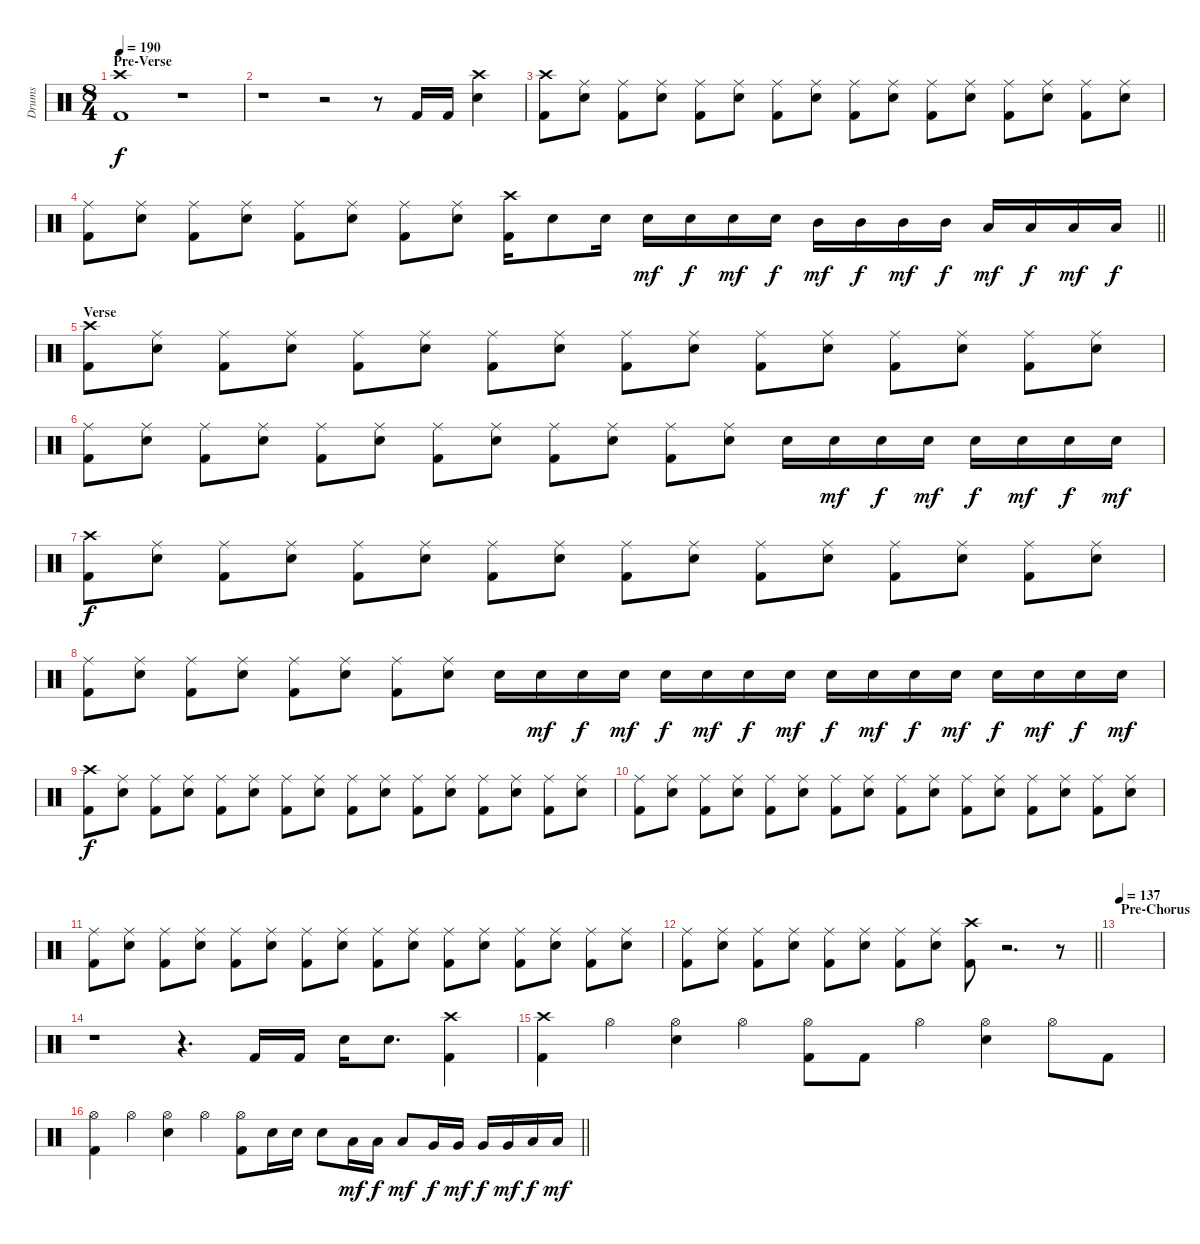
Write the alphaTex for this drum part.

\track ("Drums" "Drums") {instrument percussion}
\staff {score}
\articulation defaults
\ts (8 4)
\section ("" "Pre-Verse")
\tempo 190
\clef neutral
\ks c
("Crash high (hit)" "Kick (hit) 2").1{dy f} r.1 |
r.1 r.2 r.8 "Kick (hit) 2".16 "Kick (hit) 2".16 ("Crash high (hit)" "Snare (hit) 2").4 |
("Crash high (hit)" "Kick (hit) 2").8 ("Ride (middle)" "Snare (hit) 2").8 ("Ride (middle)" "Kick (hit) 2").8 ("Ride (middle)" "Snare (hit) 2").8 ("Ride (middle)" "Kick (hit) 2").8 ("Ride (middle)" "Snare (hit) 2").8 ("Ride (middle)" "Kick (hit) 2").8 ("Ride (middle)" "Snare (hit) 2").8 ("Ride (middle)" "Kick (hit) 2").8 ("Ride (middle)" "Snare (hit) 2").8 ("Ride (middle)" "Kick (hit) 2").8 ("Ride (middle)" "Snare (hit) 2").8 ("Ride (middle)" "Kick (hit) 2").8 ("Ride (middle)" "Snare (hit) 2").8 ("Ride (middle)" "Kick (hit) 2").8 ("Ride (middle)" "Snare (hit) 2").8 |
\barLineRight lightlight
("Ride (middle)" "Kick (hit) 2").8 ("Ride (middle)" "Snare (hit) 2").8 ("Ride (middle)" "Kick (hit) 2").8 ("Ride (middle)" "Snare (hit) 2").8 ("Ride (middle)" "Kick (hit) 2").8 ("Ride (middle)" "Snare (hit) 2").8 ("Ride (middle)" "Kick (hit) 2").8 ("Ride (middle)" "Snare (hit) 2").8 ("Crash high (hit)" "Kick (hit) 2").16 "Snare (hit) 2".8 "Snare (hit) 2".16 "Snare (hit) 2".16{dy mf} "Snare (hit) 2".16{dy f} "Snare (hit) 2".16{dy mf} "Snare (hit) 2".16{dy f} "Mid Tom (hit)".16{dy mf} "Mid Tom (hit)".16{dy f} "Mid Tom (hit)".16{dy mf} "Mid Tom (hit)".16{dy f} "Low Tom (hit)".16{dy mf} "Low Tom (hit)".16{dy f} "Low Tom (hit)".16{dy mf} "Low Tom (hit)".16{dy f} |
\section ("" "Verse")
("Crash high (hit)" "Kick (hit) 2").8 ("Ride (middle)" "Snare (hit) 2").8 ("Ride (middle)" "Kick (hit) 2").8 ("Ride (middle)" "Snare (hit) 2").8 ("Ride (middle)" "Kick (hit) 2").8 ("Ride (middle)" "Snare (hit) 2").8 ("Ride (middle)" "Kick (hit) 2").8 ("Ride (middle)" "Snare (hit) 2").8 ("Ride (middle)" "Kick (hit) 2").8 ("Ride (middle)" "Snare (hit) 2").8 ("Ride (middle)" "Kick (hit) 2").8 ("Ride (middle)" "Snare (hit) 2").8 ("Ride (middle)" "Kick (hit) 2").8 ("Ride (middle)" "Snare (hit) 2").8 ("Ride (middle)" "Kick (hit) 2").8 ("Ride (middle)" "Snare (hit) 2").8 |
("Ride (middle)" "Kick (hit) 2").8 ("Ride (middle)" "Snare (hit) 2").8 ("Ride (middle)" "Kick (hit) 2").8 ("Ride (middle)" "Snare (hit) 2").8 ("Ride (middle)" "Kick (hit) 2").8 ("Ride (middle)" "Snare (hit) 2").8 ("Ride (middle)" "Kick (hit) 2").8 ("Ride (middle)" "Snare (hit) 2").8 ("Ride (middle)" "Kick (hit) 2").8 ("Ride (middle)" "Snare (hit) 2").8 ("Ride (middle)" "Kick (hit) 2").8 ("Ride (middle)" "Snare (hit) 2").8 "Snare (hit) 2".16 "Snare (hit) 2".16{dy mf} "Snare (hit) 2".16{dy f} "Snare (hit) 2".16{dy mf} "Snare (hit) 2".16{dy f} "Snare (hit) 2".16{dy mf} "Snare (hit) 2".16{dy f} "Snare (hit) 2".16{dy mf} |
("Crash high (hit)" "Kick (hit) 2").8{dy f} ("Ride (middle)" "Snare (hit) 2").8 ("Ride (middle)" "Kick (hit) 2").8 ("Ride (middle)" "Snare (hit) 2").8 ("Ride (middle)" "Kick (hit) 2").8 ("Ride (middle)" "Snare (hit) 2").8 ("Ride (middle)" "Kick (hit) 2").8 ("Ride (middle)" "Snare (hit) 2").8 ("Ride (middle)" "Kick (hit) 2").8 ("Ride (middle)" "Snare (hit) 2").8 ("Ride (middle)" "Kick (hit) 2").8 ("Ride (middle)" "Snare (hit) 2").8 ("Ride (middle)" "Kick (hit) 2").8 ("Ride (middle)" "Snare (hit) 2").8 ("Ride (middle)" "Kick (hit) 2").8 ("Ride (middle)" "Snare (hit) 2").8 |
("Ride (middle)" "Kick (hit) 2").8 ("Ride (middle)" "Snare (hit) 2").8 ("Ride (middle)" "Kick (hit) 2").8 ("Ride (middle)" "Snare (hit) 2").8 ("Ride (middle)" "Kick (hit) 2").8 ("Ride (middle)" "Snare (hit) 2").8 ("Ride (middle)" "Kick (hit) 2").8 ("Ride (middle)" "Snare (hit) 2").8 "Snare (hit) 2".16 "Snare (hit) 2".16{dy mf} "Snare (hit) 2".16{dy f} "Snare (hit) 2".16{dy mf} "Snare (hit) 2".16{dy f} "Snare (hit) 2".16{dy mf} "Snare (hit) 2".16{dy f} "Snare (hit) 2".16{dy mf} "Snare (hit) 2".16{dy f} "Snare (hit) 2".16{dy mf} "Snare (hit) 2".16{dy f} "Snare (hit) 2".16{dy mf} "Snare (hit) 2".16{dy f} "Snare (hit) 2".16{dy mf} "Snare (hit) 2".16{dy f} "Snare (hit) 2".16{dy mf} |
("Crash high (hit)" "Kick (hit) 2").8{dy f} ("Ride (middle)" "Snare (hit) 2").8 ("Ride (middle)" "Kick (hit) 2").8 ("Ride (middle)" "Snare (hit) 2").8 ("Ride (middle)" "Kick (hit) 2").8 ("Ride (middle)" "Snare (hit) 2").8 ("Ride (middle)" "Kick (hit) 2").8 ("Ride (middle)" "Snare (hit) 2").8 ("Ride (middle)" "Kick (hit) 2").8 ("Ride (middle)" "Snare (hit) 2").8 ("Ride (middle)" "Kick (hit) 2").8 ("Ride (middle)" "Snare (hit) 2").8 ("Ride (middle)" "Kick (hit) 2").8 ("Ride (middle)" "Snare (hit) 2").8 ("Ride (middle)" "Kick (hit) 2").8 ("Ride (middle)" "Snare (hit) 2").8 |
("Ride (middle)" "Kick (hit) 2").8 ("Ride (middle)" "Snare (hit) 2").8 ("Ride (middle)" "Kick (hit) 2").8 ("Ride (middle)" "Snare (hit) 2").8 ("Ride (middle)" "Kick (hit) 2").8 ("Ride (middle)" "Snare (hit) 2").8 ("Ride (middle)" "Kick (hit) 2").8 ("Ride (middle)" "Snare (hit) 2").8 ("Ride (middle)" "Kick (hit) 2").8 ("Ride (middle)" "Snare (hit) 2").8 ("Ride (middle)" "Kick (hit) 2").8 ("Ride (middle)" "Snare (hit) 2").8 ("Ride (middle)" "Kick (hit) 2").8 ("Ride (middle)" "Snare (hit) 2").8 ("Ride (middle)" "Kick (hit) 2").8 ("Ride (middle)" "Snare (hit) 2").8 |
("Ride (middle)" "Kick (hit) 2").8 ("Ride (middle)" "Snare (hit) 2").8 ("Ride (middle)" "Kick (hit) 2").8 ("Ride (middle)" "Snare (hit) 2").8 ("Ride (middle)" "Kick (hit) 2").8 ("Ride (middle)" "Snare (hit) 2").8 ("Ride (middle)" "Kick (hit) 2").8 ("Ride (middle)" "Snare (hit) 2").8 ("Ride (middle)" "Kick (hit) 2").8 ("Ride (middle)" "Snare (hit) 2").8 ("Ride (middle)" "Kick (hit) 2").8 ("Ride (middle)" "Snare (hit) 2").8 ("Ride (middle)" "Kick (hit) 2").8 ("Ride (middle)" "Snare (hit) 2").8 ("Ride (middle)" "Kick (hit) 2").8 ("Ride (middle)" "Snare (hit) 2").8 |
\barLineRight lightlight
("Ride (middle)" "Kick (hit) 2").8 ("Ride (middle)" "Snare (hit) 2").8 ("Ride (middle)" "Kick (hit) 2").8 ("Ride (middle)" "Snare (hit) 2").8 ("Ride (middle)" "Kick (hit) 2").8 ("Ride (middle)" "Snare (hit) 2").8 ("Ride (middle)" "Kick (hit) 2").8 ("Ride (middle)" "Snare (hit) 2").8 ("Crash high (hit)" "Kick (hit) 2").8 r.2{d} r.8 |
\section ("" "Pre-Chorus")
\tempo 137
|
r.1 r.4{d} "Kick (hit) 2".16 "Kick (hit) 2".16 "Snare (hit) 2".16 "Snare (hit) 2".8{d} ("Crash high (hit)" "Kick (hit) 2").4 |
("Crash high (hit)" "Kick (hit) 2").4 "Hi-Hat (open)".4 ("Hi-Hat (open)" "Snare (hit) 2").4 "Hi-Hat (open)".4 ("Hi-Hat (open)" "Kick (hit) 2").8 "Kick (hit) 2".8 "Hi-Hat (open)".4 ("Hi-Hat (open)" "Snare (hit) 2").4 "Hi-Hat (open)".8 "Kick (hit) 2".8 |
\barLineRight lightlight
("Hi-Hat (open)" "Kick (hit) 2").4 "Hi-Hat (open)".4 ("Hi-Hat (open)" "Snare (hit) 2").4 "Hi-Hat (open)".4 ("Hi-Hat (open)" "Kick (hit) 2").8 "Snare (hit) 2".16 "Snare (hit) 2".16 "Snare (hit) 2".8 "Low Tom (hit)".16{dy mf} "Low Tom (hit)".16{dy f} "Low Tom (hit)".8{dy mf} "Very Low Tom (hit)".16{dy f} "Very Low Tom (hit)".16{dy mf} "Very Low Tom (hit)".16{dy f} "Very Low Tom (hit)".16{dy mf} "Low Floor Tom (hit)".16{dy f} "Low Floor Tom (hit)".16{dy mf}
